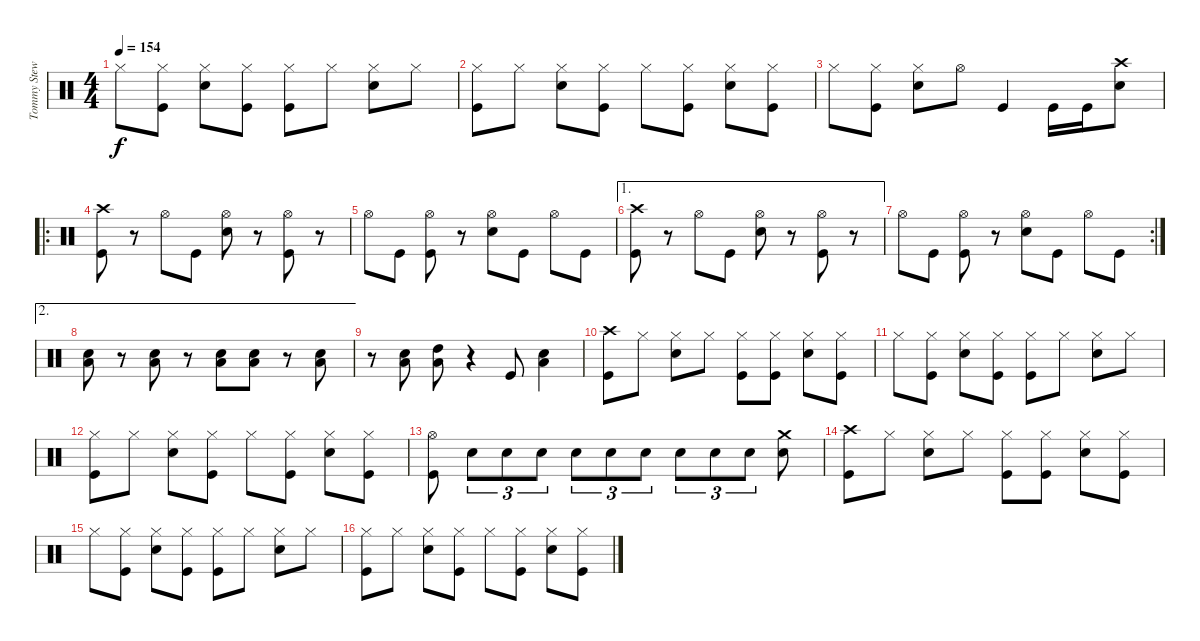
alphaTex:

\track ("Tommy Stewart" "Tommy Stew") {instrument percussion}
\staff {score}
\articulation defaults
\ts (4 4)
\tempo 154
\clef neutral
\ks c "Hi-Hat (closed)".8{dy f}
("Hi-Hat (closed)" "Kick (hit)").8 ("Hi-Hat (closed)" "Snare (hit) 2").8 ("Hi-Hat (closed)" "Kick (hit)").8 ("Hi-Hat (closed)" "Kick (hit)").8 "Hi-Hat (closed)".8 ("Hi-Hat (closed)" "Snare (hit) 2").8 "Hi-Hat (closed)".8 |
("Hi-Hat (closed)" "Kick (hit)").8 "Hi-Hat (closed)".8 ("Hi-Hat (closed)" "Snare (hit) 2").8 ("Hi-Hat (closed)" "Kick (hit)").8 "Hi-Hat (closed)".8 ("Hi-Hat (closed)" "Kick (hit)").8 ("Hi-Hat (closed)" "Snare (hit) 2").8 ("Hi-Hat (closed)" "Kick (hit)").8 |
"Hi-Hat (closed)".8 ("Hi-Hat (closed)" "Kick (hit)").8 ("Hi-Hat (closed)" "Snare (hit) 2").8 "Hi-Hat (open)".8 "Kick (hit)".4 "Kick (hit)".16 "Kick (hit)".16 ("Crash high (hit)" "Snare (hit) 2").8 |
\ro
("Crash high (hit)" "Kick (hit)").8 r.8 "Hi-Hat (open)".8 "Kick (hit)".8 ("Hi-Hat (open)" "Snare (hit) 2").8 r.8 ("Hi-Hat (open)" "Kick (hit)").8 r.8 |
"Hi-Hat (open)".8 "Kick (hit)".8 ("Hi-Hat (open)" "Kick (hit)").8 r.8 ("Hi-Hat (open)" "Snare (hit) 2").8 "Kick (hit)".8 "Hi-Hat (open)".8 "Kick (hit)".8 |
\ae 1
("Crash high (hit)" "Kick (hit)").8 r.8 "Hi-Hat (open)".8 "Kick (hit)".8 ("Hi-Hat (open)" "Snare (hit) 2").8 r.8 ("Hi-Hat (open)" "Kick (hit)").8 r.8 |
\rc 2 "Hi-Hat (open)".8 "Kick (hit)".8
("Hi-Hat (open)" "Kick (hit)").8 r.8 ("Hi-Hat (open)" "Snare (hit) 2").8 "Kick (hit)".8 "Hi-Hat (open)".8 "Kick (hit)".8 |
\ae 2
("Snare (hit) 2" "Low Tom (hit)").8 r.8 ("Snare (hit) 2" "Low Tom (hit)").8 r.8 ("Snare (hit) 2" "Low Tom (hit)").8 ("Snare (hit) 2" "Low Tom (hit)").8 r.8 ("Snare (hit) 2" "Low Tom (hit)").8 |
r.8 ("Snare (hit) 2" "Low Tom (hit)").8 ("High Tom (hit)" "Low Tom (hit)").8 r.4 "Kick (hit)".8 ("Snare (hit) 2" "Low Tom (hit)").4 |
("Crash high (hit)" "Kick (hit)").8 "Hi-Hat (closed)".8 ("Hi-Hat (closed)" "Snare (hit) 2").8 "Hi-Hat (closed)".8 ("Hi-Hat (closed)" "Kick (hit)").8 ("Hi-Hat (closed)" "Kick (hit)").8 ("Hi-Hat (closed)" "Snare (hit) 2").8 ("Hi-Hat (closed)" "Kick (hit)").8 |
"Hi-Hat (closed)".8 ("Hi-Hat (closed)" "Kick (hit)").8 ("Hi-Hat (closed)" "Snare (hit) 2").8 ("Hi-Hat (closed)" "Kick (hit)").8 ("Hi-Hat (closed)" "Kick (hit)").8 "Hi-Hat (closed)".8 ("Hi-Hat (closed)" "Snare (hit) 2").8 "Hi-Hat (closed)".8 |
("Hi-Hat (closed)" "Kick (hit)").8 "Hi-Hat (closed)".8 ("Hi-Hat (closed)" "Snare (hit) 2").8 ("Hi-Hat (closed)" "Kick (hit)").8 "Hi-Hat (closed)".8 ("Hi-Hat (closed)" "Kick (hit)").8 ("Hi-Hat (closed)" "Snare (hit) 2").8 ("Hi-Hat (closed)" "Kick (hit)").8 |
("Hi-Hat (open)" "Kick (hit)").8 "Snare (hit) 2".8{tu (3 2)} "Snare (hit) 2".8{tu (3 2)} "Snare (hit) 2".8{tu (3 2)} "Snare (hit) 2".8{tu (3 2)} "Snare (hit) 2".8{tu (3 2)} "Snare (hit) 2".8{tu (3 2)} "Snare (hit) 2".8{tu (3 2)} "Snare (hit) 2".8{tu (3 2)} "Snare (hit) 2".8{tu (3 2)} ("Crash medium (hit)" "Snare (hit) 2").8 |
("Crash high (hit)" "Kick (hit)").8 "Hi-Hat (closed)".8 ("Hi-Hat (closed)" "Snare (hit) 2").8 "Hi-Hat (closed)".8 ("Hi-Hat (closed)" "Kick (hit)").8 ("Hi-Hat (closed)" "Kick (hit)").8 ("Hi-Hat (closed)" "Snare (hit) 2").8 ("Hi-Hat (closed)" "Kick (hit)").8 |
"Hi-Hat (closed)".8 ("Hi-Hat (closed)" "Kick (hit)").8 ("Hi-Hat (closed)" "Snare (hit) 2").8 ("Hi-Hat (closed)" "Kick (hit)").8 ("Hi-Hat (closed)" "Kick (hit)").8 "Hi-Hat (closed)".8 ("Hi-Hat (closed)" "Snare (hit) 2").8 "Hi-Hat (closed)".8 |
("Hi-Hat (closed)" "Kick (hit)").8 "Hi-Hat (closed)".8 ("Hi-Hat (closed)" "Snare (hit) 2").8 ("Hi-Hat (closed)" "Kick (hit)").8 "Hi-Hat (closed)".8 ("Hi-Hat (closed)" "Kick (hit)").8 ("Hi-Hat (closed)" "Snare (hit) 2").8 ("Hi-Hat (closed)" "Kick (hit)").8
